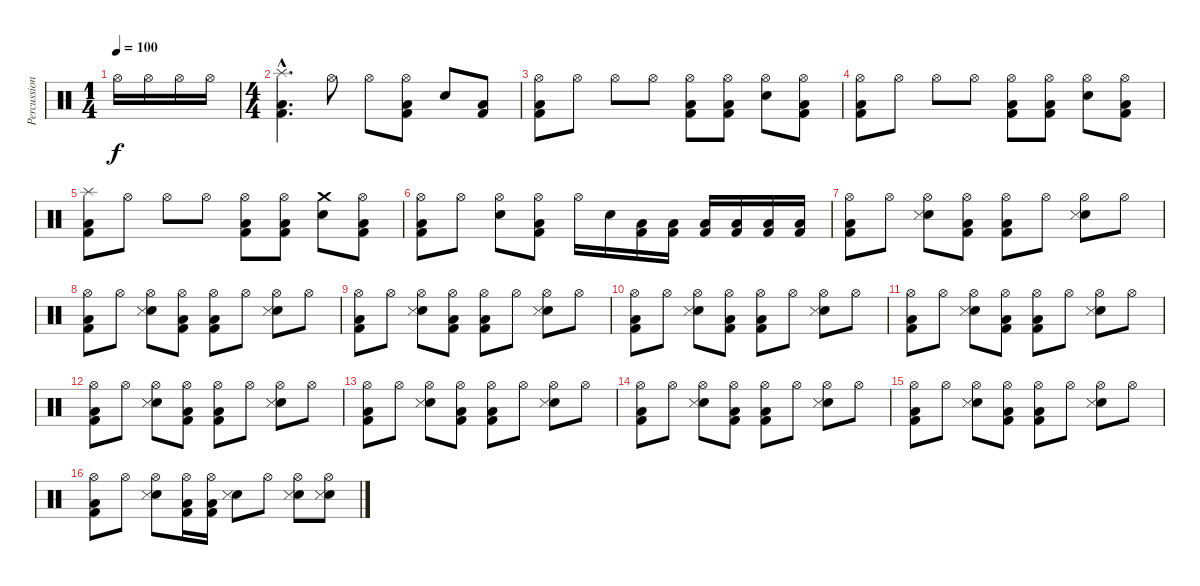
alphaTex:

\track ("Percussions" "Percussion") {instrument percussion}
\staff {score}
\articulation defaults
\ts (1 4)
\tempo 100
\clef neutral
\ks c "Hi-Hat (open)".16{dy f} "Hi-Hat (open)".16 "Hi-Hat (open)".16 "Hi-Hat (open)".16
|
\ts (4 4)
("Splash (hit)"{hac} "Kick (hit) 2"{hac} "Low Floor Tom (hit)"{hac}).4{d} "Hi-Hat (open)".8 "Hi-Hat (open)".8 ("Hi-Hat (open)" "Kick (hit) 2" "Low Floor Tom (hit)").8 "Snare (hit) 2".8 ("Kick (hit) 2" "Low Floor Tom (hit)").8 |
("Hi-Hat (open)" "Kick (hit) 2" "Low Floor Tom (hit)").8 "Hi-Hat (open)".8 "Hi-Hat (open)".8 "Hi-Hat (open)".8 ("Hi-Hat (open)" "Kick (hit) 2" "Low Floor Tom (hit)").8 ("Hi-Hat (open)" "Kick (hit) 2" "Low Floor Tom (hit)").8 ("Hi-Hat (open)" "Snare (hit) 2").8 ("Hi-Hat (open)" "Kick (hit) 2" "Low Floor Tom (hit)").8 |
("Hi-Hat (open)" "Kick (hit) 2" "Low Floor Tom (hit)").8 "Hi-Hat (open)".8 "Hi-Hat (open)".8 "Hi-Hat (open)".8 ("Hi-Hat (open)" "Kick (hit) 2" "Low Floor Tom (hit)").8 ("Hi-Hat (open)" "Kick (hit) 2" "Low Floor Tom (hit)").8 ("Hi-Hat (open)" "Snare (hit) 2").8 ("Hi-Hat (open)" "Kick (hit) 2" "Low Floor Tom (hit)").8 |
("Splash (hit)" "Kick (hit) 2" "Low Floor Tom (hit)").8 "Hi-Hat (open)".8 "Hi-Hat (open)".8 "Hi-Hat (open)".8 ("Hi-Hat (open)" "Kick (hit) 2" "Low Floor Tom (hit)").8 ("Hi-Hat (open)" "Kick (hit) 2" "Low Floor Tom (hit)").8 ("Crash medium (hit)" "Snare (hit) 2").8 ("Hi-Hat (open)" "Kick (hit) 2" "Low Floor Tom (hit)").8 |
("Hi-Hat (open)" "Kick (hit) 2" "Low Floor Tom (hit)").8 "Hi-Hat (open)".8 ("Hi-Hat (open)" "Snare (hit) 2").8 ("Hi-Hat (open)" "Kick (hit) 2" "Low Floor Tom (hit)").8 "Hi-Hat (open)".16 "Snare (hit) 2".16 ("Kick (hit) 2" "Low Floor Tom (hit)").16 ("Kick (hit) 2" "Low Floor Tom (hit)").16 ("Kick (hit) 2" "Low Floor Tom (hit)").16 ("Kick (hit) 2" "Low Floor Tom (hit)").16 ("Kick (hit) 2" "Low Floor Tom (hit)").16 ("Kick (hit) 2" "Low Floor Tom (hit)").16 |
("Hi-Hat (open)" "Kick (hit) 2" "Low Floor Tom (hit)").8 "Hi-Hat (open)".8 ("Hi-Hat (open)" "Snare (hit) 2" "Snare (side stick) 3").8 ("Hi-Hat (open)" "Kick (hit) 2" "Low Floor Tom (hit)").8 ("Hi-Hat (open)" "Kick (hit) 2" "Low Floor Tom (hit)").8 "Hi-Hat (open)".8 ("Hi-Hat (open)" "Snare (hit) 2" "Snare (side stick) 3").8 "Hi-Hat (open)".8 |
("Hi-Hat (open)" "Kick (hit) 2" "Low Floor Tom (hit)").8 "Hi-Hat (open)".8 ("Hi-Hat (open)" "Snare (hit) 2" "Snare (side stick) 3").8 ("Hi-Hat (open)" "Kick (hit) 2" "Low Floor Tom (hit)").8 ("Hi-Hat (open)" "Kick (hit) 2" "Low Floor Tom (hit)").8 "Hi-Hat (open)".8 ("Hi-Hat (open)" "Snare (hit) 2" "Snare (side stick) 3").8 "Hi-Hat (open)".8 |
("Hi-Hat (open)" "Kick (hit) 2" "Low Floor Tom (hit)").8 "Hi-Hat (open)".8 ("Hi-Hat (open)" "Snare (hit) 2" "Snare (side stick) 3").8 ("Hi-Hat (open)" "Kick (hit) 2" "Low Floor Tom (hit)").8 ("Hi-Hat (open)" "Kick (hit) 2" "Low Floor Tom (hit)").8 "Hi-Hat (open)".8 ("Hi-Hat (open)" "Snare (hit) 2" "Snare (side stick) 3").8 "Hi-Hat (open)".8 |
("Hi-Hat (open)" "Kick (hit) 2" "Low Floor Tom (hit)").8 "Hi-Hat (open)".8 ("Hi-Hat (open)" "Snare (hit) 2" "Snare (side stick) 3").8 ("Hi-Hat (open)" "Kick (hit) 2" "Low Floor Tom (hit)").8 ("Hi-Hat (open)" "Kick (hit) 2" "Low Floor Tom (hit)").8 "Hi-Hat (open)".8 ("Hi-Hat (open)" "Snare (hit) 2" "Snare (side stick) 3").8 "Hi-Hat (open)".8 |
("Hi-Hat (open)" "Kick (hit) 2" "Low Floor Tom (hit)").8 "Hi-Hat (open)".8 ("Hi-Hat (open)" "Snare (hit) 2" "Snare (side stick) 3").8 ("Hi-Hat (open)" "Kick (hit) 2" "Low Floor Tom (hit)").8 ("Hi-Hat (open)" "Kick (hit) 2" "Low Floor Tom (hit)").8 "Hi-Hat (open)".8 ("Hi-Hat (open)" "Snare (hit) 2" "Snare (side stick) 3").8 "Hi-Hat (open)".8 |
("Hi-Hat (open)" "Kick (hit) 2" "Low Floor Tom (hit)").8 "Hi-Hat (open)".8 ("Hi-Hat (open)" "Snare (hit) 2" "Snare (side stick) 3").8 ("Hi-Hat (open)" "Kick (hit) 2" "Low Floor Tom (hit)").8 ("Hi-Hat (open)" "Kick (hit) 2" "Low Floor Tom (hit)").8 "Hi-Hat (open)".8 ("Hi-Hat (open)" "Snare (hit) 2" "Snare (side stick) 3").8 "Hi-Hat (open)".8 |
("Hi-Hat (open)" "Kick (hit) 2" "Low Floor Tom (hit)").8 "Hi-Hat (open)".8 ("Hi-Hat (open)" "Snare (hit) 2" "Snare (side stick) 3").8 ("Hi-Hat (open)" "Kick (hit) 2" "Low Floor Tom (hit)").8 ("Hi-Hat (open)" "Kick (hit) 2" "Low Floor Tom (hit)").8 "Hi-Hat (open)".8 ("Hi-Hat (open)" "Snare (hit) 2" "Snare (side stick) 3").8 "Hi-Hat (open)".8 |
("Hi-Hat (open)" "Kick (hit) 2" "Low Floor Tom (hit)").8 "Hi-Hat (open)".8 ("Hi-Hat (open)" "Snare (hit) 2" "Snare (side stick) 3").8 ("Hi-Hat (open)" "Kick (hit) 2" "Low Floor Tom (hit)").8 ("Hi-Hat (open)" "Kick (hit) 2" "Low Floor Tom (hit)").8 "Hi-Hat (open)".8 ("Hi-Hat (open)" "Snare (hit) 2" "Snare (side stick) 3").8 "Hi-Hat (open)".8 |
("Hi-Hat (open)" "Kick (hit) 2" "Low Floor Tom (hit)").8 "Hi-Hat (open)".8 ("Hi-Hat (open)" "Snare (hit) 2" "Snare (side stick) 3").8 ("Hi-Hat (open)" "Kick (hit) 2" "Low Floor Tom (hit)").8 ("Hi-Hat (open)" "Kick (hit) 2" "Low Floor Tom (hit)").8 "Hi-Hat (open)".8 ("Hi-Hat (open)" "Snare (hit) 2" "Snare (side stick) 3").8 "Hi-Hat (open)".8 |
("Hi-Hat (open)" "Kick (hit) 2" "Low Floor Tom (hit)").8 "Hi-Hat (open)".8 ("Hi-Hat (open)" "Snare (hit) 2" "Snare (side stick) 3").8 ("Hi-Hat (open)" "Kick (hit) 2" "Low Floor Tom (hit)").16 ("Hi-Hat (open)" "Kick (hit) 2" "Low Floor Tom (hit)").16 ("Snare (hit) 2" "Snare (side stick) 3").8 "Hi-Hat (open)".8 ("Hi-Hat (open)" "Snare (hit) 2" "Snare (side stick) 3").8 ("Hi-Hat (open)" "Snare (hit) 2" "Snare (side stick) 3").8
